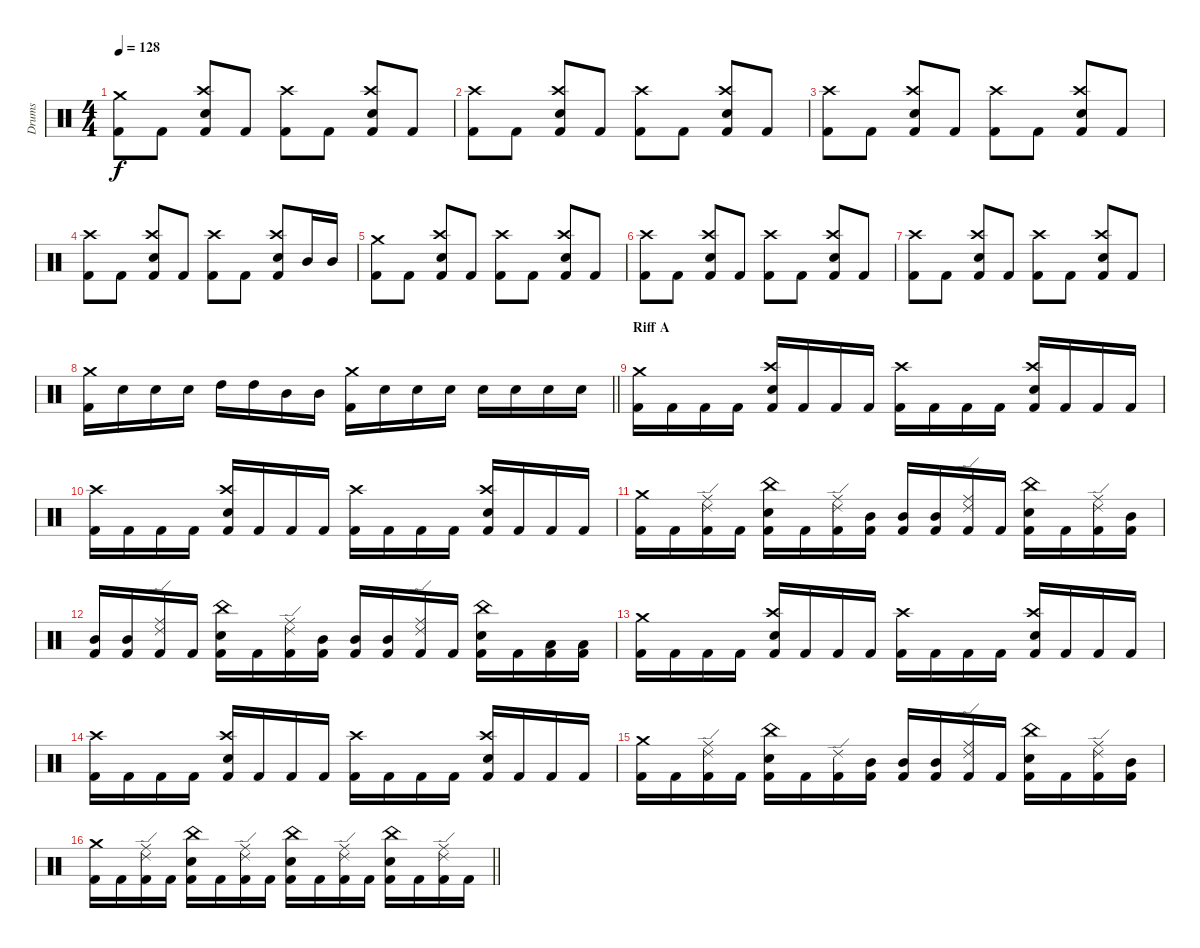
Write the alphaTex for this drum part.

\track ("Drums" "Drums") {instrument percussion}
\staff {score}
\articulation defaults
\ts (4 4)
\section ("" "")
\tempo 128
\clef neutral
\ks c
("Crash medium (hit)" "Kick (hit) 2").8{dy f} "Kick (hit) 2".8 ("Crash high (hit)" "Electric Snare (hit)" "Kick (hit) 2").8 "Kick (hit) 2".8 ("Crash high (hit)" "Kick (hit) 2").8 "Kick (hit) 2".8 ("Crash high (hit)" "Electric Snare (hit)" "Kick (hit) 2").8 "Kick (hit) 2".8 |
("Crash high (hit)" "Kick (hit) 2").8 "Kick (hit) 2".8 ("Crash high (hit)" "Electric Snare (hit)" "Kick (hit) 2").8 "Kick (hit) 2".8 ("Crash high (hit)" "Kick (hit) 2").8 "Kick (hit) 2".8 ("Crash high (hit)" "Electric Snare (hit)" "Kick (hit) 2").8 "Kick (hit) 2".8 |
("Crash high (hit)" "Kick (hit) 2").8 "Kick (hit) 2".8 ("Crash high (hit)" "Electric Snare (hit)" "Kick (hit) 2").8 "Kick (hit) 2".8 ("Crash high (hit)" "Kick (hit) 2").8 "Kick (hit) 2".8 ("Crash high (hit)" "Electric Snare (hit)" "Kick (hit) 2").8 "Kick (hit) 2".8 |
("Crash high (hit)" "Kick (hit) 2").8 "Kick (hit) 2".8 ("Crash high (hit)" "Electric Snare (hit)" "Kick (hit) 2").8 "Kick (hit) 2".8 ("Crash high (hit)" "Kick (hit) 2").8 "Kick (hit) 2".8 ("Crash high (hit)" "Electric Snare (hit)" "Kick (hit) 2").8 "Mid Tom (hit)".16 "Mid Tom (hit)".16 |
("Crash medium (hit)" "Kick (hit) 2").8 "Kick (hit) 2".8 ("Crash high (hit)" "Electric Snare (hit)" "Kick (hit) 2").8 "Kick (hit) 2".8 ("Crash high (hit)" "Kick (hit) 2").8 "Kick (hit) 2".8 ("Crash high (hit)" "Electric Snare (hit)" "Kick (hit) 2").8 "Kick (hit) 2".8 |
("Crash high (hit)" "Kick (hit) 2").8 "Kick (hit) 2".8 ("Crash high (hit)" "Electric Snare (hit)" "Kick (hit) 2").8 "Kick (hit) 2".8 ("Crash high (hit)" "Kick (hit) 2").8 "Kick (hit) 2".8 ("Crash high (hit)" "Electric Snare (hit)" "Kick (hit) 2").8 "Kick (hit) 2".8 |
("Crash high (hit)" "Kick (hit) 2").8 "Kick (hit) 2".8 ("Crash high (hit)" "Electric Snare (hit)" "Kick (hit) 2").8 "Kick (hit) 2".8 ("Crash high (hit)" "Kick (hit) 2").8 "Kick (hit) 2".8 ("Crash high (hit)" "Electric Snare (hit)" "Kick (hit) 2").8 "Kick (hit) 2".8 |
\barLineRight lightlight
("Crash medium (hit)" "Kick (hit) 2").16 "Electric Snare (hit)".16 "Electric Snare (hit)".16 "Electric Snare (hit)".16 "High Tom (hit)".16 "High Tom (hit)".16 "Mid Tom (hit)".16 "Mid Tom (hit)".16 ("Crash medium (hit)" "Kick (hit) 2").16 "Electric Snare (hit)".16 "Electric Snare (hit)".16 "Electric Snare (hit)".16 "Electric Snare (hit)".16 "Electric Snare (hit)".16 "Electric Snare (hit)".16 "Electric Snare (hit)".16 |
\section ("" "Riff A")
("Crash medium (hit)" "Kick (hit) 2").16 "Kick (hit) 2".16 "Kick (hit) 2".16 "Kick (hit) 2".16 ("Crash high (hit)" "Electric Snare (hit)" "Kick (hit) 2").16 "Kick (hit) 2".16 "Kick (hit) 2".16 "Kick (hit) 2".16 ("Crash high (hit)" "Kick (hit) 2").16 "Kick (hit) 2".16 "Kick (hit) 2".16 "Kick (hit) 2".16 ("Crash high (hit)" "Electric Snare (hit)" "Kick (hit) 2").16 "Kick (hit) 2".16 "Kick (hit) 2".16 "Kick (hit) 2".16 |
("Crash high (hit)" "Kick (hit) 2").16 "Kick (hit) 2".16 "Kick (hit) 2".16 "Kick (hit) 2".16 ("Crash high (hit)" "Electric Snare (hit)" "Kick (hit) 2").16 "Kick (hit) 2".16 "Kick (hit) 2".16 "Kick (hit) 2".16 ("Crash high (hit)" "Kick (hit) 2").16 "Kick (hit) 2".16 "Kick (hit) 2".16 "Kick (hit) 2".16 ("Crash high (hit)" "Electric Snare (hit)" "Kick (hit) 2").16 "Kick (hit) 2".16 "Kick (hit) 2".16 "Kick (hit) 2".16 |
("Crash medium (hit)" "Kick (hit) 2").16 "Kick (hit) 2".16 ("Ride (middle)" "Ride (edge) 2" "Kick (hit) 2").16 "Kick (hit) 2".16 ("China (hit)" "Electric Snare (hit)" "Kick (hit) 2").16 "Kick (hit) 2".16 ("Ride (middle)" "Ride (edge) 2" "Kick (hit) 2").16 ("Mid Tom (hit)" "Kick (hit) 2").16 ("Mid Tom (hit)" "Kick (hit) 2").16 ("Mid Tom (hit)" "Kick (hit) 2").16 ("Ride (middle)" "Ride (edge) 2" "Kick (hit) 2").16 "Kick (hit) 2".16 ("China (hit)" "Electric Snare (hit)" "Kick (hit) 2").16 "Kick (hit) 2".16 ("Ride (middle)" "Ride (edge) 2" "Kick (hit) 2").16 ("Mid Tom (hit)" "Kick (hit) 2").16 |
("Mid Tom (hit)" "Kick (hit) 2").16 ("Mid Tom (hit)" "Kick (hit) 2").16 ("Ride (middle)" "Ride (edge) 2" "Kick (hit) 2").16 "Kick (hit) 2".16 ("China (hit)" "Electric Snare (hit)" "Kick (hit) 2").16 "Kick (hit) 2".16 ("Ride (middle)" "Ride (edge) 2" "Kick (hit) 2").16 ("Mid Tom (hit)" "Kick (hit) 2").16 ("Mid Tom (hit)" "Kick (hit) 2").16 ("Mid Tom (hit)" "Kick (hit) 2").16 ("Ride (middle)" "Ride (edge) 2" "Kick (hit) 2").16 "Kick (hit) 2".16 ("China (hit)" "Electric Snare (hit)" "Kick (hit) 2").16 "Kick (hit) 2".16 ("Low Tom (hit)" "Kick (hit) 2").16 ("Low Tom (hit)" "Kick (hit) 2").16 |
("Crash medium (hit)" "Kick (hit) 2").16 "Kick (hit) 2".16 "Kick (hit) 2".16 "Kick (hit) 2".16 ("Crash high (hit)" "Electric Snare (hit)" "Kick (hit) 2").16 "Kick (hit) 2".16 "Kick (hit) 2".16 "Kick (hit) 2".16 ("Crash high (hit)" "Kick (hit) 2").16 "Kick (hit) 2".16 "Kick (hit) 2".16 "Kick (hit) 2".16 ("Crash high (hit)" "Electric Snare (hit)" "Kick (hit) 2").16 "Kick (hit) 2".16 "Kick (hit) 2".16 "Kick (hit) 2".16 |
("Crash high (hit)" "Kick (hit) 2").16 "Kick (hit) 2".16 "Kick (hit) 2".16 "Kick (hit) 2".16 ("Crash high (hit)" "Electric Snare (hit)" "Kick (hit) 2").16 "Kick (hit) 2".16 "Kick (hit) 2".16 "Kick (hit) 2".16 ("Crash high (hit)" "Kick (hit) 2").16 "Kick (hit) 2".16 "Kick (hit) 2".16 "Kick (hit) 2".16 ("Crash high (hit)" "Electric Snare (hit)" "Kick (hit) 2").16 "Kick (hit) 2".16 "Kick (hit) 2".16 "Kick (hit) 2".16 |
("Crash medium (hit)" "Kick (hit) 2").16 "Kick (hit) 2".16 ("Ride (middle)" "Ride (edge) 2" "Kick (hit) 2").16 "Kick (hit) 2".16 ("China (hit)" "Electric Snare (hit)" "Kick (hit) 2").16 "Kick (hit) 2".16 ("Ride (edge) 2" "Kick (hit) 2").16 ("Mid Tom (hit)" "Kick (hit) 2").16 ("Mid Tom (hit)" "Kick (hit) 2").16 ("Mid Tom (hit)" "Kick (hit) 2").16 ("Ride (middle)" "Ride (edge) 2" "Kick (hit) 2").16 "Kick (hit) 2".16 ("China (hit)" "Electric Snare (hit)" "Kick (hit) 2").16 "Kick (hit) 2".16 ("Ride (middle)" "Ride (edge) 2" "Kick (hit) 2").16 ("Mid Tom (hit)" "Kick (hit) 2").16 |
\barLineRight lightlight
("Crash medium (hit)" "Kick (hit) 2").16 "Kick (hit) 2".16 ("Ride (middle)" "Ride (edge) 2" "Kick (hit) 2").16 "Kick (hit) 2".16 ("China (hit)" "Electric Snare (hit)" "Kick (hit) 2").16 "Kick (hit) 2".16 ("Ride (middle)" "Ride (edge) 2" "Kick (hit) 2").16 "Kick (hit) 2".16 ("China (hit)" "Electric Snare (hit)" "Kick (hit) 2").16 "Kick (hit) 2".16 ("Ride (middle)" "Ride (edge) 2" "Kick (hit) 2").16 "Kick (hit) 2".16 ("China (hit)" "Electric Snare (hit)" "Kick (hit) 2").16 "Kick (hit) 2".16 ("Ride (middle)" "Ride (edge) 2" "Kick (hit) 2").16 "Kick (hit) 2".16
